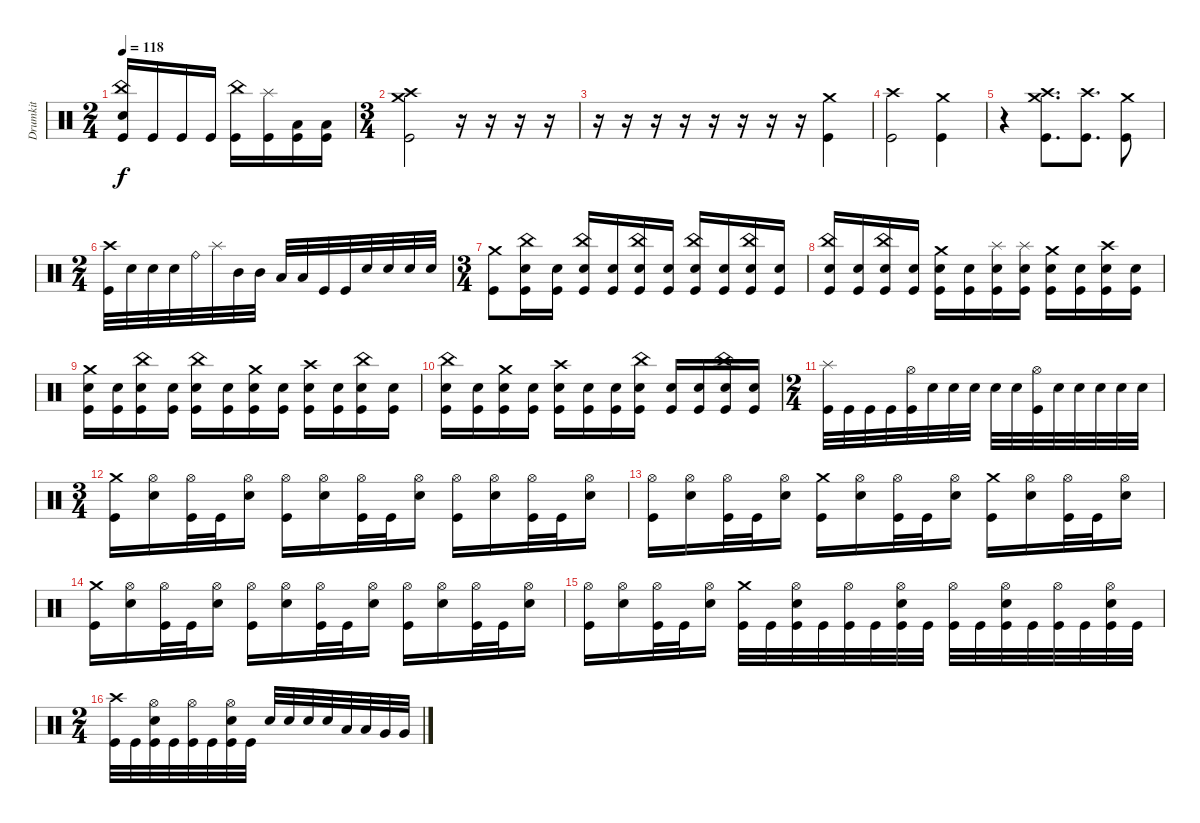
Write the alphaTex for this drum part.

\track ("Drumkit" "Drumkit") {instrument percussion}
\staff {score}
\articulation defaults
\ts (2 4)
\tempo 118
\clef neutral
\ks c
("Kick (hit)" "China (hit)" "Snare (hit) 2").16{dy f} "Kick (hit)".16 "Kick (hit)".16 "Kick (hit)".16 ("Kick (hit)" "China (hit)").16 ("Kick (hit)" "Splash (hit)").16 ("Kick (hit)" "Low Tom (hit)").16 ("Kick (hit)" "Low Tom (hit)").16 |
\ts (3 4)
("Kick (hit)" "Crash high (hit)" "Crash medium (hit)").2 r.16 r.16 r.16 r.16 |
r.16 r.16 r.16 r.16 r.16 r.16 r.16 r.16 ("Kick (hit)" "Crash medium (hit)").4 |
("Kick (hit)" "Crash high (hit)").2 ("Kick (hit)" "Crash medium (hit)").4 |
r.4 ("Kick (hit)" "Crash high (hit)" "Crash medium (hit)").8{d} ("Kick (hit)" "Crash high (hit)").8{d} ("Kick (hit)" "Crash medium (hit)").8 |
\ts (2 4)
("Crash high (hit)" "Kick (hit)").32 "Snare (hit) 2".32 "Snare (hit) 2".32 "Snare (hit) 2".32 "Ride (bell)".32 "Splash (hit)".32 "Mid Tom (hit)".32 "Mid Tom (hit)".32 "Low Tom (hit)".32 "Low Tom (hit)".32 "Kick (hit)".32 "Kick (hit)".32 "Snare (hit) 2".32 "Snare (hit) 2".32 "Snare (hit) 2".32 "Snare (hit) 2".32 |
\ts (3 4)
("Kick (hit)" "Crash medium (hit)").8 ("Kick (hit)" "Snare (hit) 2" "China (hit)").16 ("Kick (hit)" "Snare (hit) 2").16 ("Kick (hit)" "Snare (hit) 2" "China (hit)").16 ("Kick (hit)" "Snare (hit) 2").16 ("Kick (hit)" "Snare (hit) 2" "China (hit)").16 ("Kick (hit)" "Snare (hit) 2").16 ("Kick (hit)" "Snare (hit) 2" "China (hit)").16 ("Kick (hit)" "Snare (hit) 2").16 ("Kick (hit)" "Snare (hit) 2" "China (hit)").16 ("Kick (hit)" "Snare (hit) 2").16 |
("Kick (hit)" "Snare (hit) 2" "China (hit)").16 ("Kick (hit)" "Snare (hit) 2").16 ("Kick (hit)" "Snare (hit) 2" "China (hit)").16 ("Kick (hit)" "Snare (hit) 2").16 ("Kick (hit)" "Snare (hit) 2" "Crash medium (hit)").16 ("Kick (hit)" "Snare (hit) 2").16 ("Kick (hit)" "Snare (hit) 2" "Splash (hit)").16 ("Kick (hit)" "Snare (hit) 2" "Splash (hit)").16 ("Kick (hit)" "Snare (hit) 2" "Crash medium (hit)").16 ("Kick (hit)" "Snare (hit) 2").16 ("Kick (hit)" "Snare (hit) 2" "Crash high (hit)").16 ("Kick (hit)" "Snare (hit) 2").16 |
("Kick (hit)" "Snare (hit) 2" "Crash medium (hit)").16 ("Kick (hit)" "Snare (hit) 2").16 ("Kick (hit)" "Snare (hit) 2" "China (hit)").16 ("Kick (hit)" "Snare (hit) 2").16 ("Kick (hit)" "Snare (hit) 2" "China (hit)").16 ("Kick (hit)" "Snare (hit) 2").16 ("Kick (hit)" "Snare (hit) 2" "Crash medium (hit)").16 ("Kick (hit)" "Snare (hit) 2").16 ("Kick (hit)" "Snare (hit) 2" "Crash high (hit)").16 ("Kick (hit)" "Snare (hit) 2").16 ("Kick (hit)" "Snare (hit) 2" "China (hit)").16 ("Kick (hit)" "Snare (hit) 2").16 |
("Kick (hit)" "Snare (hit) 2" "China (hit)").16 ("Kick (hit)" "Snare (hit) 2").16 ("Kick (hit)" "Snare (hit) 2" "Crash medium (hit)").16 ("Kick (hit)" "Snare (hit) 2").16 ("Kick (hit)" "Snare (hit) 2" "Crash high (hit)").16 ("Snare (hit) 2" "Kick (hit)").16 ("Snare (hit) 2" "Kick (hit)").16 ("Snare (hit) 2" "Kick (hit)" "China (hit)").16 ("Snare (hit) 2" "Kick (hit)").16 ("Snare (hit) 2" "Kick (hit)").16 ("Snare (hit) 2" "Kick (hit)" "China (hit)").16 ("Snare (hit) 2" "Kick (hit)").16 |
\ts (2 4)
("Splash (hit)" "Kick (hit)").32 "Kick (hit)".32 "Kick (hit)".32 "Kick (hit)".32 ("Hi-Hat (open)" "Kick (hit)").32 "Snare (hit) 2".32 "Snare (hit) 2".32 "Snare (hit) 2".32 "Snare (hit) 2".32 "Snare (hit) 2".32 ("Hi-Hat (open)" "Kick (hit)").32 "Snare (hit) 2".32 "Snare (hit) 2".32 "Snare (hit) 2".32 "Snare (hit) 2".32 "Snare (hit) 2".32 |
\ts (3 4)
("Kick (hit)" "Crash medium (hit)").16 ("Snare (hit) 2" "Hi-Hat (open)").16 ("Kick (hit)" "Hi-Hat (open)").32 "Kick (hit)".32 ("Snare (hit) 2" "Hi-Hat (open)").16 ("Kick (hit)" "Hi-Hat (open)").16 ("Snare (hit) 2" "Hi-Hat (open)").16 ("Kick (hit)" "Hi-Hat (open)").32 "Kick (hit)".32 ("Snare (hit) 2" "Hi-Hat (open)").16 ("Kick (hit)" "Hi-Hat (open)").16 ("Snare (hit) 2" "Hi-Hat (open)").16 ("Kick (hit)" "Hi-Hat (open)").32 "Kick (hit)".32 ("Snare (hit) 2" "Hi-Hat (open)").16 |
("Kick (hit)" "Hi-Hat (open)").16 ("Snare (hit) 2" "Hi-Hat (open)").16 ("Kick (hit)" "Hi-Hat (open)").32 "Kick (hit)".32 ("Snare (hit) 2" "Hi-Hat (open)").16 ("Kick (hit)" "Crash medium (hit)").16 ("Hi-Hat (open)" "Snare (hit) 2").16 ("Kick (hit)" "Hi-Hat (open)").32 "Kick (hit)".32 ("Snare (hit) 2" "Hi-Hat (open)").16 ("Kick (hit)" "Crash medium (hit)").16 ("Hi-Hat (open)" "Snare (hit) 2").16 ("Kick (hit)" "Hi-Hat (open)").32 "Kick (hit)".32 ("Snare (hit) 2" "Hi-Hat (open)").16 |
("Kick (hit)" "Crash medium (hit)").16 ("Hi-Hat (open)" "Snare (hit) 2").16 ("Kick (hit)" "Hi-Hat (open)").32 "Kick (hit)".32 ("Snare (hit) 2" "Hi-Hat (open)").16 ("Kick (hit)" "Hi-Hat (open)").16 ("Snare (hit) 2" "Hi-Hat (open)").16 ("Kick (hit)" "Hi-Hat (open)").32 "Kick (hit)".32 ("Snare (hit) 2" "Hi-Hat (open)").16 ("Kick (hit)" "Hi-Hat (open)").16 ("Snare (hit) 2" "Hi-Hat (open)").16 ("Kick (hit)" "Hi-Hat (open)").32 "Kick (hit)".32 ("Snare (hit) 2" "Hi-Hat (open)").16 |
("Kick (hit)" "Hi-Hat (open)").16 ("Snare (hit) 2" "Hi-Hat (open)").16 ("Kick (hit)" "Hi-Hat (open)").32 "Kick (hit)".32 ("Snare (hit) 2" "Hi-Hat (open)").16 ("Kick (hit)" "Crash medium (hit)").32 "Kick (hit)".32 ("Kick (hit)" "Snare (hit) 2" "Hi-Hat (open)").32 "Kick (hit)".32 ("Kick (hit)" "Hi-Hat (open)").32 "Kick (hit)".32 ("Kick (hit)" "Snare (hit) 2" "Hi-Hat (open)").32 "Kick (hit)".32 ("Kick (hit)" "Hi-Hat (open)").32 "Kick (hit)".32 ("Kick (hit)" "Snare (hit) 2" "Hi-Hat (open)").32 "Kick (hit)".32 ("Kick (hit)" "Hi-Hat (open)").32 "Kick (hit)".32 ("Kick (hit)" "Snare (hit) 2" "Hi-Hat (open)").32 "Kick (hit)".32 |
\ts (2 4)
("Kick (hit)" "Crash high (hit)").32 "Kick (hit)".32 ("Kick (hit)" "Snare (hit) 2" "Hi-Hat (open)").32 "Kick (hit)".32 ("Kick (hit)" "Hi-Hat (open)").32 "Kick (hit)".32 ("Kick (hit)" "Snare (hit) 2" "Hi-Hat (open)").32 "Kick (hit)".32 "Snare (hit) 2".32 "Snare (hit) 2".32 "Snare (hit) 2".32 "Snare (hit) 2".32 "Low Tom (hit)".32 "Low Tom (hit)".32 "Very Low Tom (hit)".32 "Very Low Tom (hit)".32
